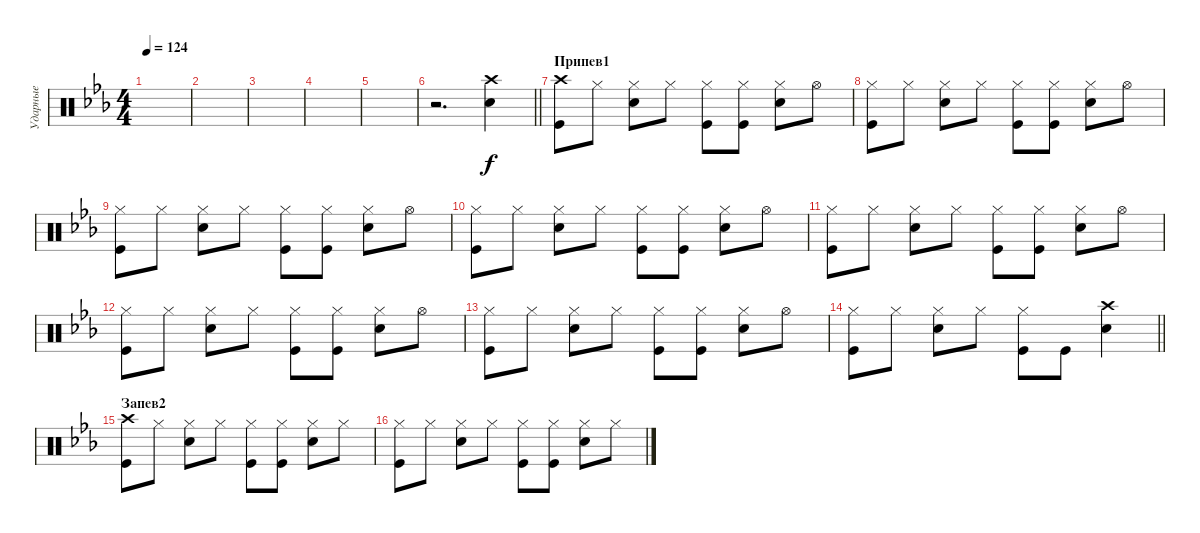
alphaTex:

\track ("Ударные" "Ударные") {instrument percussion}
\staff {score}
\articulation defaults
\ts (4 4)
\tempo 124
\clef neutral
\ks cminor
|
|
|
|
|
\barLineRight lightlight
r.2{d} ("Snare (hit) 2" "Crash high (hit)").4 |
\section ("" "Припев1")
("Crash high (hit)" "Kick (hit)").8 "Hi-Hat (closed)".8 ("Hi-Hat (closed)" "Snare (hit) 2").8 "Hi-Hat (closed)".8 ("Hi-Hat (closed)" "Kick (hit)").8 ("Hi-Hat (closed)" "Kick (hit)").8 ("Hi-Hat (closed)" "Snare (hit) 2").8 "Hi-Hat (open)".8 |
("Hi-Hat (closed)" "Kick (hit)").8 "Hi-Hat (closed)".8 ("Snare (hit) 2" "Hi-Hat (closed)").8 "Hi-Hat (closed)".8 ("Hi-Hat (closed)" "Kick (hit)").8 ("Hi-Hat (closed)" "Kick (hit)").8 ("Hi-Hat (closed)" "Snare (hit) 2").8 "Hi-Hat (open)".8 |
("Hi-Hat (closed)" "Kick (hit)").8 "Hi-Hat (closed)".8 ("Snare (hit) 2" "Hi-Hat (closed)").8 "Hi-Hat (closed)".8 ("Hi-Hat (closed)" "Kick (hit)").8 ("Hi-Hat (closed)" "Kick (hit)").8 ("Hi-Hat (closed)" "Snare (hit) 2").8 "Hi-Hat (open)".8 |
("Hi-Hat (closed)" "Kick (hit)").8 "Hi-Hat (closed)".8 ("Snare (hit) 2" "Hi-Hat (closed)").8 "Hi-Hat (closed)".8 ("Hi-Hat (closed)" "Kick (hit)").8 ("Hi-Hat (closed)" "Kick (hit)").8 ("Hi-Hat (closed)" "Snare (hit) 2").8 "Hi-Hat (open)".8 |
("Hi-Hat (closed)" "Kick (hit)").8 "Hi-Hat (closed)".8 ("Snare (hit) 2" "Hi-Hat (closed)").8 "Hi-Hat (closed)".8 ("Hi-Hat (closed)" "Kick (hit)").8 ("Hi-Hat (closed)" "Kick (hit)").8 ("Hi-Hat (closed)" "Snare (hit) 2").8 "Hi-Hat (open)".8 |
("Hi-Hat (closed)" "Kick (hit)").8 "Hi-Hat (closed)".8 ("Snare (hit) 2" "Hi-Hat (closed)").8 "Hi-Hat (closed)".8 ("Hi-Hat (closed)" "Kick (hit)").8 ("Hi-Hat (closed)" "Kick (hit)").8 ("Hi-Hat (closed)" "Snare (hit) 2").8 "Hi-Hat (open)".8 |
("Hi-Hat (closed)" "Kick (hit)").8 "Hi-Hat (closed)".8 ("Snare (hit) 2" "Hi-Hat (closed)").8 "Hi-Hat (closed)".8 ("Hi-Hat (closed)" "Kick (hit)").8 ("Hi-Hat (closed)" "Kick (hit)").8 ("Hi-Hat (closed)" "Snare (hit) 2").8 "Hi-Hat (open)".8 |
\barLineRight lightlight
("Hi-Hat (closed)" "Kick (hit)").8 "Hi-Hat (closed)".8 ("Snare (hit) 2" "Hi-Hat (closed)").8 "Hi-Hat (closed)".8 ("Kick (hit)" "Hi-Hat (closed)").8 "Kick (hit)".8 ("Crash high (hit)" "Snare (hit) 2").4 |
\section ("" "Запев2")
("Crash high (hit)" "Kick (hit)").8 "Hi-Hat (closed)".8 ("Hi-Hat (closed)" "Snare (hit) 2").8 "Hi-Hat (closed)".8 ("Hi-Hat (closed)" "Kick (hit)").8 ("Kick (hit)" "Hi-Hat (closed)").8 ("Hi-Hat (closed)" "Snare (hit) 2").8 "Hi-Hat (closed)".8 |
("Hi-Hat (closed)" "Kick (hit)").8 "Hi-Hat (closed)".8 ("Hi-Hat (closed)" "Snare (hit) 2").8 "Hi-Hat (closed)".8 ("Hi-Hat (closed)" "Kick (hit)").8 ("Hi-Hat (closed)" "Kick (hit)").8 ("Hi-Hat (closed)" "Snare (hit) 2").8 "Hi-Hat (closed)".8
